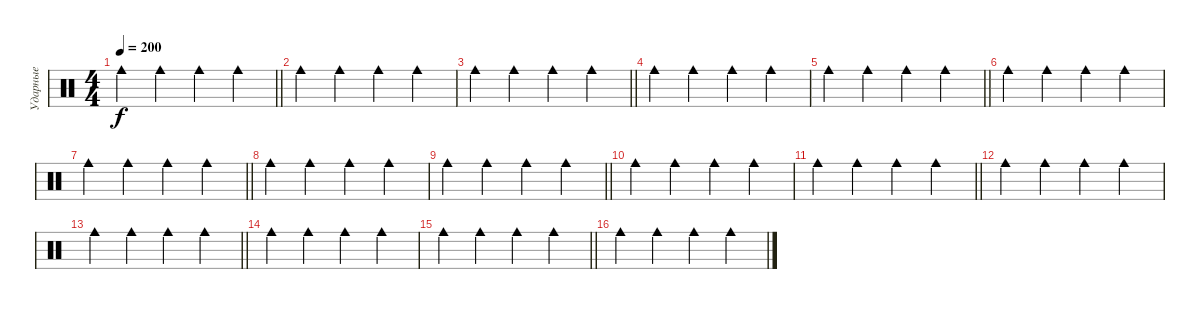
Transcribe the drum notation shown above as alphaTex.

\track ("Ударные" "Ударные") {instrument percussion}
\staff {score}
\articulation defaults
\ts (4 4)
\tempo 200
\clef neutral
\barLineRight lightlight
\ks c "Cowbell medium (hit)".4{dy f} "Cowbell medium (hit)".4 "Cowbell medium (hit)".4 "Cowbell medium (hit)".4
|
"Cowbell medium (hit)".4 "Cowbell medium (hit)".4 "Cowbell medium (hit)".4 "Cowbell medium (hit)".4 |
\barLineRight lightlight "Cowbell medium (hit)".4 "Cowbell medium (hit)".4 "Cowbell medium (hit)".4 "Cowbell medium (hit)".4
|
"Cowbell medium (hit)".4 "Cowbell medium (hit)".4 "Cowbell medium (hit)".4 "Cowbell medium (hit)".4 |
\barLineRight lightlight "Cowbell medium (hit)".4 "Cowbell medium (hit)".4 "Cowbell medium (hit)".4 "Cowbell medium (hit)".4
|
"Cowbell medium (hit)".4 "Cowbell medium (hit)".4 "Cowbell medium (hit)".4 "Cowbell medium (hit)".4 |
\barLineRight lightlight "Cowbell medium (hit)".4 "Cowbell medium (hit)".4 "Cowbell medium (hit)".4 "Cowbell medium (hit)".4
|
"Cowbell medium (hit)".4 "Cowbell medium (hit)".4 "Cowbell medium (hit)".4 "Cowbell medium (hit)".4 |
\barLineRight lightlight "Cowbell medium (hit)".4 "Cowbell medium (hit)".4 "Cowbell medium (hit)".4 "Cowbell medium (hit)".4
|
"Cowbell medium (hit)".4 "Cowbell medium (hit)".4 "Cowbell medium (hit)".4 "Cowbell medium (hit)".4 |
\barLineRight lightlight "Cowbell medium (hit)".4 "Cowbell medium (hit)".4 "Cowbell medium (hit)".4 "Cowbell medium (hit)".4
|
"Cowbell medium (hit)".4 "Cowbell medium (hit)".4 "Cowbell medium (hit)".4 "Cowbell medium (hit)".4 |
\barLineRight lightlight "Cowbell medium (hit)".4 "Cowbell medium (hit)".4 "Cowbell medium (hit)".4 "Cowbell medium (hit)".4
|
"Cowbell medium (hit)".4 "Cowbell medium (hit)".4 "Cowbell medium (hit)".4 "Cowbell medium (hit)".4 |
\barLineRight lightlight "Cowbell medium (hit)".4 "Cowbell medium (hit)".4 "Cowbell medium (hit)".4 "Cowbell medium (hit)".4
|
"Cowbell medium (hit)".4 "Cowbell medium (hit)".4 "Cowbell medium (hit)".4 "Cowbell medium (hit)".4
